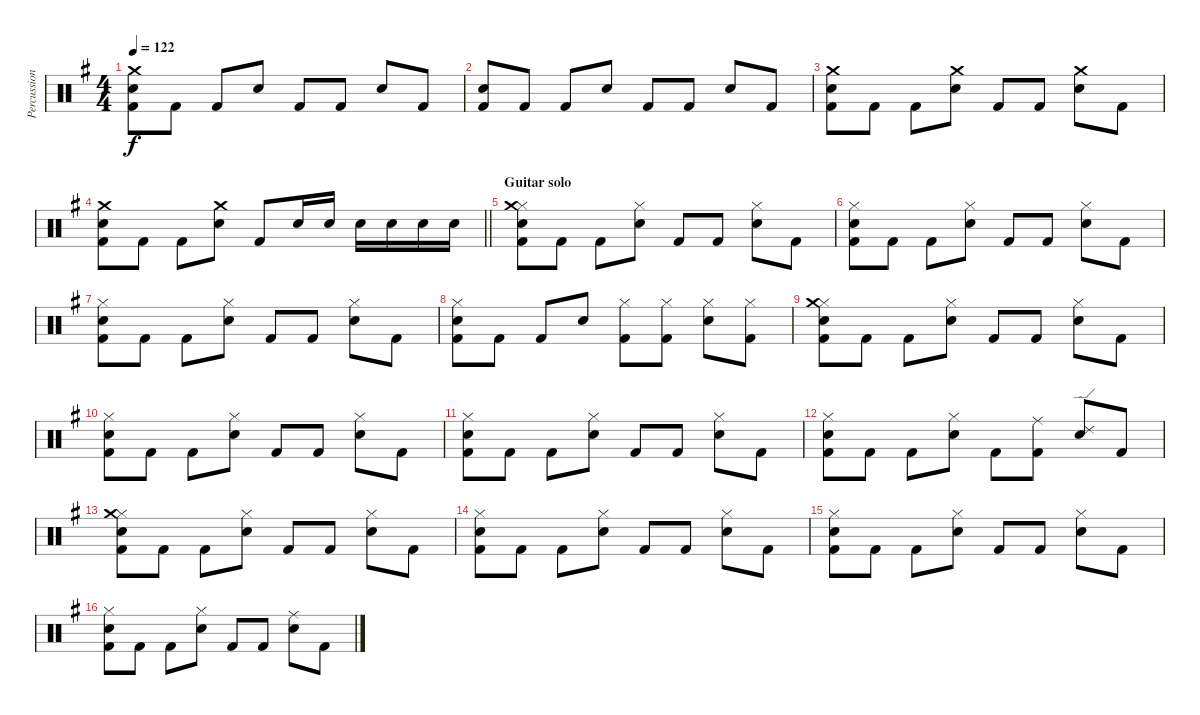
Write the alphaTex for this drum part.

\track ("Percussion" "Percussion") {instrument percussion}
\staff {score}
\articulation defaults
\ts (4 4)
\tempo 122
\clef neutral
\ks g
("Crash medium (hit)" "Snare (hit) 2" "Kick (hit) 2").8{dy f} "Kick (hit) 2".8 "Kick (hit) 2".8 "Snare (hit) 2".8 "Kick (hit) 2".8 "Kick (hit) 2".8 "Snare (hit) 2".8 "Kick (hit) 2".8 |
("Snare (hit) 2" "Kick (hit) 2").8 "Kick (hit) 2".8 "Kick (hit) 2".8 "Snare (hit) 2".8 "Kick (hit) 2".8 "Kick (hit) 2".8 "Snare (hit) 2".8 "Kick (hit) 2".8 |
("Crash medium (hit)" "Snare (hit) 2" "Kick (hit) 2").8 "Kick (hit) 2".8 "Kick (hit) 2".8 ("Crash medium (hit)" "Snare (hit) 2").8 "Kick (hit) 2".8 "Kick (hit) 2".8 ("Crash medium (hit)" "Snare (hit) 2").8 "Kick (hit) 2".8 |
\barLineRight lightlight
("Crash medium (hit)" "Snare (hit) 2" "Kick (hit) 2").8 "Kick (hit) 2".8 "Kick (hit) 2".8 ("Crash medium (hit)" "Snare (hit) 2").8 "Kick (hit) 2".8 "Snare (hit) 2".16 "Snare (hit) 2".16 "Snare (hit) 2".16 "Snare (hit) 2".16 "Snare (hit) 2".16 "Snare (hit) 2".16 |
\section ("" "Guitar solo")
("Hi-Hat (closed)" "Crash medium (hit)" "Snare (hit) 2" "Kick (hit) 2").8 "Kick (hit) 2".8 "Kick (hit) 2".8 ("Hi-Hat (closed)" "Snare (hit) 2").8 "Kick (hit) 2".8 "Kick (hit) 2".8 ("Hi-Hat (closed)" "Snare (hit) 2").8 "Kick (hit) 2".8 |
("Hi-Hat (closed)" "Snare (hit) 2" "Kick (hit) 2").8 "Kick (hit) 2".8 "Kick (hit) 2".8 ("Hi-Hat (closed)" "Snare (hit) 2").8 "Kick (hit) 2".8 "Kick (hit) 2".8 ("Hi-Hat (closed)" "Snare (hit) 2").8 "Kick (hit) 2".8 |
("Hi-Hat (closed)" "Snare (hit) 2" "Kick (hit) 2").8 "Kick (hit) 2".8 "Kick (hit) 2".8 ("Hi-Hat (closed)" "Snare (hit) 2").8 "Kick (hit) 2".8 "Kick (hit) 2".8 ("Hi-Hat (closed)" "Snare (hit) 2").8 "Kick (hit) 2".8 |
("Hi-Hat (closed)" "Snare (hit) 2" "Kick (hit) 2").8 "Kick (hit) 2".8 "Kick (hit) 2".8 "Snare (hit) 2".8 ("Hi-Hat (closed)" "Kick (hit) 2").8 ("Hi-Hat (closed)" "Kick (hit) 2").8 ("Hi-Hat (closed)" "Snare (hit) 2").8 ("Hi-Hat (closed)" "Kick (hit) 2").8 |
("Hi-Hat (closed)" "Crash medium (hit)" "Snare (hit) 2" "Kick (hit) 2").8 "Kick (hit) 2".8 "Kick (hit) 2".8 ("Hi-Hat (closed)" "Snare (hit) 2").8 "Kick (hit) 2".8 "Kick (hit) 2".8 ("Hi-Hat (closed)" "Snare (hit) 2").8 "Kick (hit) 2".8 |
("Hi-Hat (closed)" "Snare (hit) 2" "Kick (hit) 2").8 "Kick (hit) 2".8 "Kick (hit) 2".8 ("Hi-Hat (closed)" "Snare (hit) 2").8 "Kick (hit) 2".8 "Kick (hit) 2".8 ("Hi-Hat (closed)" "Snare (hit) 2").8 "Kick (hit) 2".8 |
("Hi-Hat (closed)" "Snare (hit) 2" "Kick (hit) 2").8 "Kick (hit) 2".8 "Kick (hit) 2".8 ("Hi-Hat (closed)" "Snare (hit) 2").8 "Kick (hit) 2".8 "Kick (hit) 2".8 ("Hi-Hat (closed)" "Snare (hit) 2").8 "Kick (hit) 2".8 |
("Hi-Hat (closed)" "Snare (hit) 2" "Kick (hit) 2").8 "Kick (hit) 2".8 "Kick (hit) 2".8 ("Hi-Hat (closed)" "Snare (hit) 2").8 "Kick (hit) 2".8 ("Ride (middle)" "Kick (hit) 2").8 ("Ride (edge) 2" "Snare (hit) 2").8 "Kick (hit) 2".8 |
("Hi-Hat (closed)" "Crash medium (hit)" "Snare (hit) 2" "Kick (hit) 2").8 "Kick (hit) 2".8 "Kick (hit) 2".8 ("Hi-Hat (closed)" "Snare (hit) 2").8 "Kick (hit) 2".8 "Kick (hit) 2".8 ("Hi-Hat (closed)" "Snare (hit) 2").8 "Kick (hit) 2".8 |
("Hi-Hat (closed)" "Snare (hit) 2" "Kick (hit) 2").8 "Kick (hit) 2".8 "Kick (hit) 2".8 ("Hi-Hat (closed)" "Snare (hit) 2").8 "Kick (hit) 2".8 "Kick (hit) 2".8 ("Hi-Hat (closed)" "Snare (hit) 2").8 "Kick (hit) 2".8 |
("Hi-Hat (closed)" "Snare (hit) 2" "Kick (hit) 2").8 "Kick (hit) 2".8 "Kick (hit) 2".8 ("Hi-Hat (closed)" "Snare (hit) 2").8 "Kick (hit) 2".8 "Kick (hit) 2".8 ("Hi-Hat (closed)" "Snare (hit) 2").8 "Kick (hit) 2".8 |
("Hi-Hat (closed)" "Snare (hit) 2" "Kick (hit) 2").8 "Kick (hit) 2".8 "Kick (hit) 2".8 ("Hi-Hat (closed)" "Snare (hit) 2").8 "Kick (hit) 2".8 "Kick (hit) 2".8 ("Ride (middle)" "Snare (hit) 2").8 "Kick (hit) 2".8
